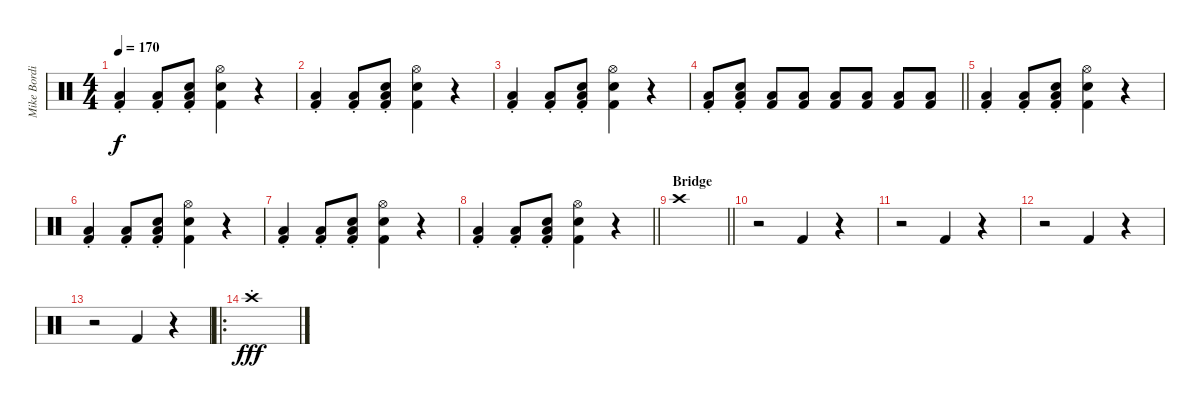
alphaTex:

\track ("Mike Bordin" "Mike Bordi") {instrument percussion}
\staff {score}
\articulation defaults
\ts (4 4)
\tempo 170
\clef neutral
\ks c
("Kick (hit) 2"{st} "Low Floor Tom (hit)").4{dy f volume 14} ("Kick (hit) 2"{st} "Low Floor Tom (hit)").8{volume 14} ("Snare (hit) 2" "Kick (hit) 2"{st} "Low Floor Tom (hit)").8 ("Hi-Hat (open)" "Snare (hit) 2" "Kick (hit) 2").4 r.4 |
("Kick (hit) 2"{st} "Low Floor Tom (hit)").4{volume 14} ("Kick (hit) 2"{st} "Low Floor Tom (hit)").8{volume 14} ("Snare (hit) 2" "Kick (hit) 2"{st} "Low Floor Tom (hit)").8 ("Hi-Hat (open)" "Snare (hit) 2" "Kick (hit) 2").4 r.4 |
("Kick (hit) 2"{st} "Low Floor Tom (hit)").4{volume 14} ("Kick (hit) 2"{st} "Low Floor Tom (hit)").8{volume 14} ("Snare (hit) 2" "Kick (hit) 2"{st} "Low Floor Tom (hit)").8 ("Hi-Hat (open)" "Snare (hit) 2" "Kick (hit) 2").4 r.4 |
\barLineRight lightlight
("Kick (hit) 2"{st} "Low Floor Tom (hit)").8{volume 14} ("Snare (hit) 2" "Kick (hit) 2"{st} "Low Floor Tom (hit)").8 ("Kick (hit) 2" "Low Floor Tom (hit)").8 ("Kick (hit) 2" "Low Floor Tom (hit)").8 ("Kick (hit) 2" "Low Floor Tom (hit)").8 ("Kick (hit) 2" "Low Floor Tom (hit)").8 ("Kick (hit) 2" "Low Floor Tom (hit)").8 ("Kick (hit) 2" "Low Floor Tom (hit)").8 |
("Kick (hit) 2"{st} "Low Floor Tom (hit)").4{volume 14} ("Kick (hit) 2"{st} "Low Floor Tom (hit)").8{volume 14} ("Snare (hit) 2" "Kick (hit) 2"{st} "Low Floor Tom (hit)").8 ("Hi-Hat (open)" "Snare (hit) 2" "Kick (hit) 2").4 r.4 |
("Kick (hit) 2"{st} "Low Floor Tom (hit)").4{volume 14} ("Kick (hit) 2"{st} "Low Floor Tom (hit)").8{volume 14} ("Snare (hit) 2" "Kick (hit) 2"{st} "Low Floor Tom (hit)").8 ("Hi-Hat (open)" "Snare (hit) 2" "Kick (hit) 2").4 r.4 |
("Kick (hit) 2"{st} "Low Floor Tom (hit)").4{volume 14} ("Kick (hit) 2"{st} "Low Floor Tom (hit)").8{volume 14} ("Snare (hit) 2" "Kick (hit) 2"{st} "Low Floor Tom (hit)").8 ("Hi-Hat (open)" "Snare (hit) 2" "Kick (hit) 2").4 r.4 |
\barLineRight lightlight
("Kick (hit) 2"{st} "Low Floor Tom (hit)").4{volume 14} ("Kick (hit) 2"{st} "Low Floor Tom (hit)").8{volume 14} ("Snare (hit) 2" "Kick (hit) 2"{st} "Low Floor Tom (hit)").8 ("Hi-Hat (open)" "Snare (hit) 2" "Kick (hit) 2").4 r.4 |
\section ("" "Bridge")
\barLineRight lightlight "Crash high (hit)".1
|
r.2 "Kick (hit) 2".4 r.4 |
r.2 "Kick (hit) 2".4 r.4 |
r.2 "Kick (hit) 2".4 r.4 |
r.2 "Kick (hit) 2".4 r.4 |
\ro "Crash high (hit)"{st}.1{dy fff}
